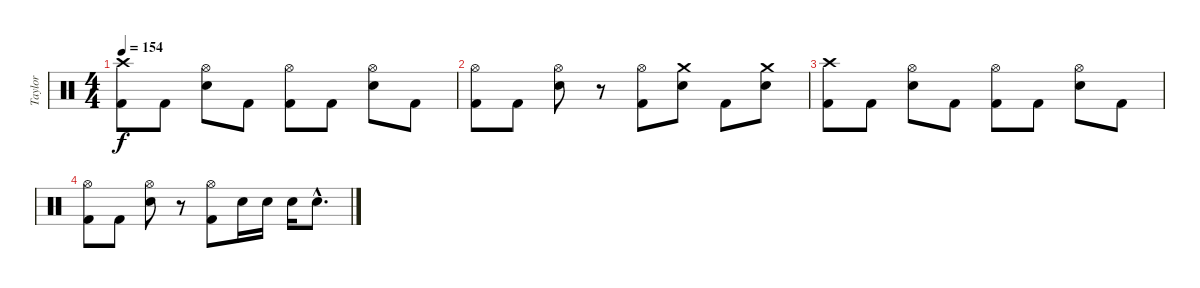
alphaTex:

\track ("Taylor" "Taylor") {instrument percussion}
\staff {score}
\articulation defaults
\ts (4 4)
\tempo 154
\clef neutral
\ks c
("Crash high (hit)" "Kick (hit) 2").8{dy f} "Kick (hit) 2".8 ("Hi-Hat (open)" "Snare (hit) 2").8 "Kick (hit) 2".8 ("Hi-Hat (open)" "Kick (hit) 2").8 "Kick (hit) 2".8 ("Hi-Hat (open)" "Snare (hit) 2").8 "Kick (hit) 2".8 |
("Hi-Hat (open)" "Kick (hit) 2").8 "Kick (hit) 2".8 ("Hi-Hat (open)" "Snare (hit) 2").8 r.8 ("Hi-Hat (open)" "Kick (hit) 2").8 ("Crash medium (hit)" "Snare (hit) 2").8 "Kick (hit) 2".8 ("Crash medium (hit)" "Snare (hit) 2").8 |
("Crash high (hit)" "Kick (hit) 2").8 "Kick (hit) 2".8 ("Hi-Hat (open)" "Snare (hit) 2").8 "Kick (hit) 2".8 ("Hi-Hat (open)" "Kick (hit) 2").8 "Kick (hit) 2".8 ("Hi-Hat (open)" "Snare (hit) 2").8 "Kick (hit) 2".8 |
("Hi-Hat (open)" "Kick (hit) 2").8 "Kick (hit) 2".8 ("Hi-Hat (open)" "Snare (hit) 2").8 r.8 ("Hi-Hat (open)" "Kick (hit) 2").8 "Snare (hit) 2".16 "Snare (hit) 2".16 "Snare (hit) 2".16 "Snare (hit) 2"{hac}.8{d}
